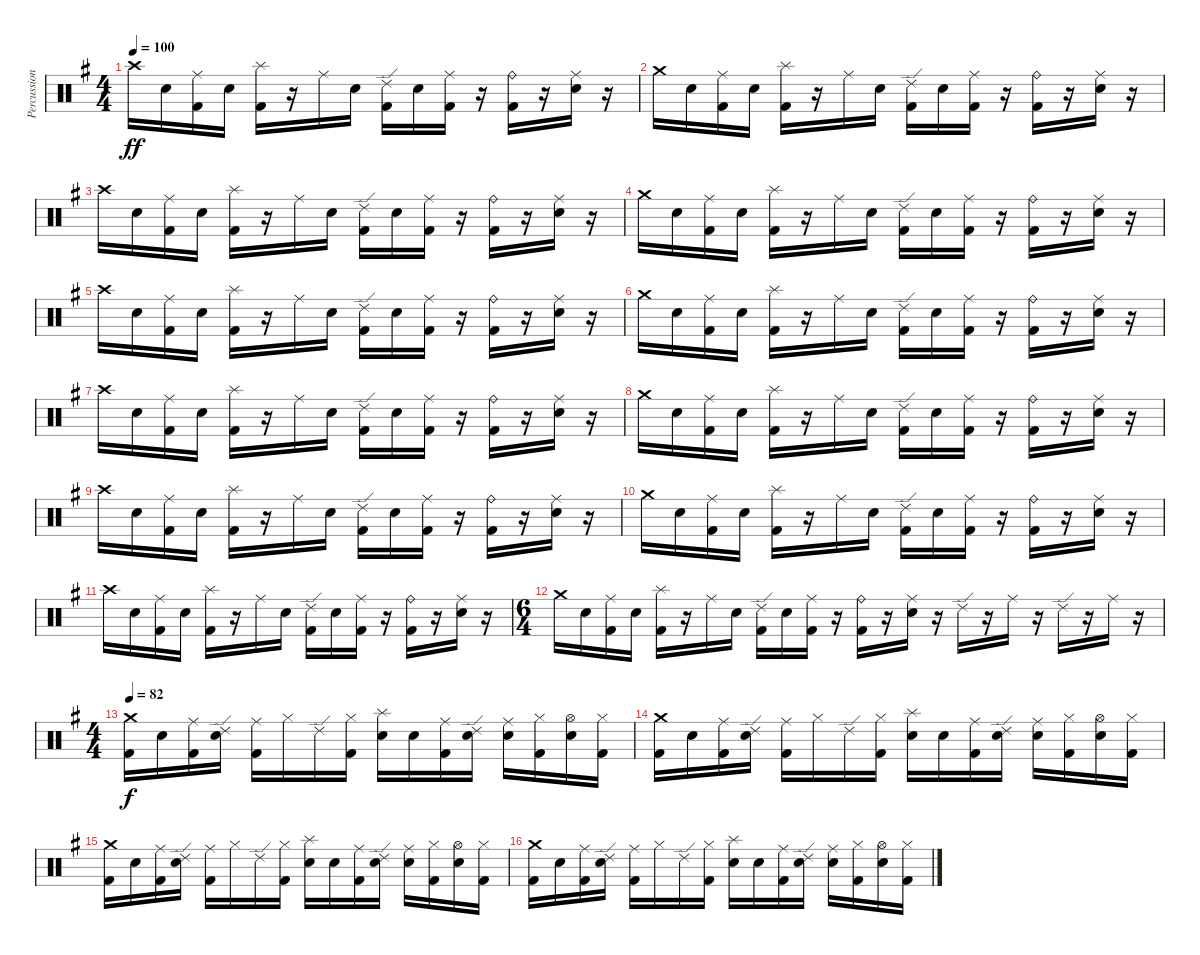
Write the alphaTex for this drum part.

\track ("Percussion" "Percussion") {instrument percussion}
\staff {score}
\articulation defaults
\ts (4 4)
\tempo 100
\clef neutral
\ks g "Crash high (hit)".16{dy ff} "Electric Snare (hit)".16
("Ride (middle)" "Kick (hit) 2").16 "Electric Snare (hit)".16 ("Splash (hit)" "Kick (hit) 2").16 r.16 "Ride (middle)".16 "Electric Snare (hit)".16 ("Ride (edge) 2" "Kick (hit) 2").16 "Electric Snare (hit)".16 ("Ride (middle)" "Kick (hit) 2").16 r.16 ("Ride (bell)" "Kick (hit) 2").16 r.16 ("Ride (middle)" "Electric Snare (hit)").16 r.16 |
"Crash medium (hit)".16 "Electric Snare (hit)".16 ("Ride (middle)" "Kick (hit) 2").16 "Electric Snare (hit)".16 ("Splash (hit)" "Kick (hit) 2").16 r.16 "Ride (middle)".16 "Electric Snare (hit)".16 ("Ride (edge) 2" "Kick (hit) 2").16 "Electric Snare (hit)".16 ("Ride (middle)" "Kick (hit) 2").16 r.16 ("Ride (bell)" "Kick (hit) 2").16 r.16 ("Ride (middle)" "Electric Snare (hit)").16 r.16 |
"Crash high (hit)".16 "Electric Snare (hit)".16 ("Ride (middle)" "Kick (hit) 2").16 "Electric Snare (hit)".16 ("Splash (hit)" "Kick (hit) 2").16 r.16 "Ride (middle)".16 "Electric Snare (hit)".16 ("Ride (edge) 2" "Kick (hit) 2").16 "Electric Snare (hit)".16 ("Ride (middle)" "Kick (hit) 2").16 r.16 ("Ride (bell)" "Kick (hit) 2").16 r.16 ("Ride (middle)" "Electric Snare (hit)").16 r.16 |
"Crash medium (hit)".16 "Electric Snare (hit)".16 ("Ride (middle)" "Kick (hit) 2").16 "Electric Snare (hit)".16 ("Splash (hit)" "Kick (hit) 2").16 r.16 "Ride (middle)".16 "Electric Snare (hit)".16 ("Ride (edge) 2" "Kick (hit) 2").16 "Electric Snare (hit)".16 ("Ride (middle)" "Kick (hit) 2").16 r.16 ("Ride (bell)" "Kick (hit) 2").16 r.16 ("Ride (middle)" "Electric Snare (hit)").16 r.16 |
"Crash high (hit)".16 "Electric Snare (hit)".16 ("Ride (middle)" "Kick (hit) 2").16 "Electric Snare (hit)".16 ("Splash (hit)" "Kick (hit) 2").16 r.16 "Ride (middle)".16 "Electric Snare (hit)".16 ("Ride (edge) 2" "Kick (hit) 2").16 "Electric Snare (hit)".16 ("Ride (middle)" "Kick (hit) 2").16 r.16 ("Ride (bell)" "Kick (hit) 2").16 r.16 ("Ride (middle)" "Electric Snare (hit)").16 r.16 |
"Crash medium (hit)".16 "Electric Snare (hit)".16 ("Ride (middle)" "Kick (hit) 2").16 "Electric Snare (hit)".16 ("Splash (hit)" "Kick (hit) 2").16 r.16 "Ride (middle)".16 "Electric Snare (hit)".16 ("Ride (edge) 2" "Kick (hit) 2").16 "Electric Snare (hit)".16 ("Ride (middle)" "Kick (hit) 2").16 r.16 ("Ride (bell)" "Kick (hit) 2").16 r.16 ("Ride (middle)" "Electric Snare (hit)").16 r.16 |
"Crash high (hit)".16 "Electric Snare (hit)".16 ("Ride (middle)" "Kick (hit) 2").16 "Electric Snare (hit)".16 ("Splash (hit)" "Kick (hit) 2").16 r.16 "Ride (middle)".16 "Electric Snare (hit)".16 ("Ride (edge) 2" "Kick (hit) 2").16 "Electric Snare (hit)".16 ("Ride (middle)" "Kick (hit) 2").16 r.16 ("Ride (bell)" "Kick (hit) 2").16 r.16 ("Ride (middle)" "Electric Snare (hit)").16 r.16 |
"Crash medium (hit)".16 "Electric Snare (hit)".16 ("Ride (middle)" "Kick (hit) 2").16 "Electric Snare (hit)".16 ("Splash (hit)" "Kick (hit) 2").16 r.16 "Ride (middle)".16 "Electric Snare (hit)".16 ("Ride (edge) 2" "Kick (hit) 2").16 "Electric Snare (hit)".16 ("Ride (middle)" "Kick (hit) 2").16 r.16 ("Ride (bell)" "Kick (hit) 2").16 r.16 ("Ride (middle)" "Electric Snare (hit)").16 r.16 |
"Crash high (hit)".16 "Electric Snare (hit)".16 ("Ride (middle)" "Kick (hit) 2").16 "Electric Snare (hit)".16 ("Splash (hit)" "Kick (hit) 2").16 r.16 "Ride (middle)".16 "Electric Snare (hit)".16 ("Ride (edge) 2" "Kick (hit) 2").16 "Electric Snare (hit)".16 ("Ride (middle)" "Kick (hit) 2").16 r.16 ("Ride (bell)" "Kick (hit) 2").16 r.16 ("Ride (middle)" "Electric Snare (hit)").16 r.16 |
"Crash medium (hit)".16 "Electric Snare (hit)".16 ("Ride (middle)" "Kick (hit) 2").16 "Electric Snare (hit)".16 ("Splash (hit)" "Kick (hit) 2").16 r.16 "Ride (middle)".16 "Electric Snare (hit)".16 ("Ride (edge) 2" "Kick (hit) 2").16 "Electric Snare (hit)".16 ("Ride (middle)" "Kick (hit) 2").16 r.16 ("Ride (bell)" "Kick (hit) 2").16 r.16 ("Ride (middle)" "Electric Snare (hit)").16 r.16 |
"Crash high (hit)".16 "Electric Snare (hit)".16 ("Ride (middle)" "Kick (hit) 2").16 "Electric Snare (hit)".16 ("Splash (hit)" "Kick (hit) 2").16 r.16 "Ride (middle)".16 "Electric Snare (hit)".16 ("Ride (edge) 2" "Kick (hit) 2").16 "Electric Snare (hit)".16 ("Ride (middle)" "Kick (hit) 2").16 r.16 ("Ride (bell)" "Kick (hit) 2").16 r.16 ("Ride (middle)" "Electric Snare (hit)").16 r.16 |
\ts (6 4)
"Crash medium (hit)".16 "Electric Snare (hit)".16 ("Ride (middle)" "Kick (hit) 2").16 "Electric Snare (hit)".16 ("Splash (hit)" "Kick (hit) 2").16 r.16 "Ride (middle)".16 "Electric Snare (hit)".16 ("Ride (edge) 2" "Kick (hit) 2").16 "Electric Snare (hit)".16 ("Ride (middle)" "Kick (hit) 2").16 r.16 ("Ride (bell)" "Kick (hit) 2").16 r.16 ("Ride (middle)" "Electric Snare (hit)").16 r.16 "Ride (edge) 2".16 r.16 "Ride (middle)".16 r.16 "Ride (edge) 2".16 r.16 "Ride (middle)".16 r.16 |
\ts (4 4)
\tempo 82
("Crash medium (hit)" "Kick (hit) 2").16{dy f} "Electric Snare (hit)".16 ("Ride (middle)" "Kick (hit) 2").16 ("Ride (edge) 2" "Electric Snare (hit)").16 ("Ride (middle)" "Kick (hit) 2").16 "Hi-Hat (closed)".16 "Ride (edge) 2".16 ("Hi-Hat (closed)" "Kick (hit) 2").16 ("Splash (hit)" "Electric Snare (hit)").16 "Electric Snare (hit)".16 ("Ride (middle)" "Kick (hit) 2").16 ("Ride (edge) 2" "Electric Snare (hit)").16 ("Ride (middle)" "Electric Snare (hit)").16 ("Hi-Hat (closed)" "Kick (hit) 2").16 ("Hi-Hat (open)" "Electric Snare (hit)").16 ("Hi-Hat (closed)" "Kick (hit) 2").16 |
("Crash medium (hit)" "Kick (hit) 2").16 "Electric Snare (hit)".16 ("Ride (middle)" "Kick (hit) 2").16 ("Ride (edge) 2" "Electric Snare (hit)").16 ("Ride (middle)" "Kick (hit) 2").16 "Hi-Hat (closed)".16 "Ride (edge) 2".16 ("Hi-Hat (closed)" "Kick (hit) 2").16 ("Splash (hit)" "Electric Snare (hit)").16 "Electric Snare (hit)".16 ("Ride (middle)" "Kick (hit) 2").16 ("Ride (edge) 2" "Electric Snare (hit)").16 ("Ride (middle)" "Electric Snare (hit)").16 ("Hi-Hat (closed)" "Kick (hit) 2").16 ("Hi-Hat (open)" "Electric Snare (hit)").16 ("Hi-Hat (closed)" "Kick (hit) 2").16 |
("Crash medium (hit)" "Kick (hit) 2").16 "Electric Snare (hit)".16 ("Ride (middle)" "Kick (hit) 2").16 ("Ride (edge) 2" "Electric Snare (hit)").16 ("Ride (middle)" "Kick (hit) 2").16 "Hi-Hat (closed)".16 "Ride (edge) 2".16 ("Hi-Hat (closed)" "Kick (hit) 2").16 ("Splash (hit)" "Electric Snare (hit)").16 "Electric Snare (hit)".16 ("Ride (middle)" "Kick (hit) 2").16 ("Ride (edge) 2" "Electric Snare (hit)").16 ("Ride (middle)" "Electric Snare (hit)").16 ("Hi-Hat (closed)" "Kick (hit) 2").16 ("Hi-Hat (open)" "Electric Snare (hit)").16 ("Hi-Hat (closed)" "Kick (hit) 2").16 |
("Crash medium (hit)" "Kick (hit) 2").16 "Electric Snare (hit)".16 ("Ride (middle)" "Kick (hit) 2").16 ("Ride (edge) 2" "Electric Snare (hit)").16 ("Ride (middle)" "Kick (hit) 2").16 "Hi-Hat (closed)".16 "Ride (edge) 2".16 ("Hi-Hat (closed)" "Kick (hit) 2").16 ("Splash (hit)" "Electric Snare (hit)").16 "Electric Snare (hit)".16 ("Ride (middle)" "Kick (hit) 2").16 ("Ride (edge) 2" "Electric Snare (hit)").16 ("Ride (middle)" "Electric Snare (hit)").16 ("Hi-Hat (closed)" "Kick (hit) 2").16 ("Hi-Hat (open)" "Electric Snare (hit)").16 ("Hi-Hat (closed)" "Kick (hit) 2").16
